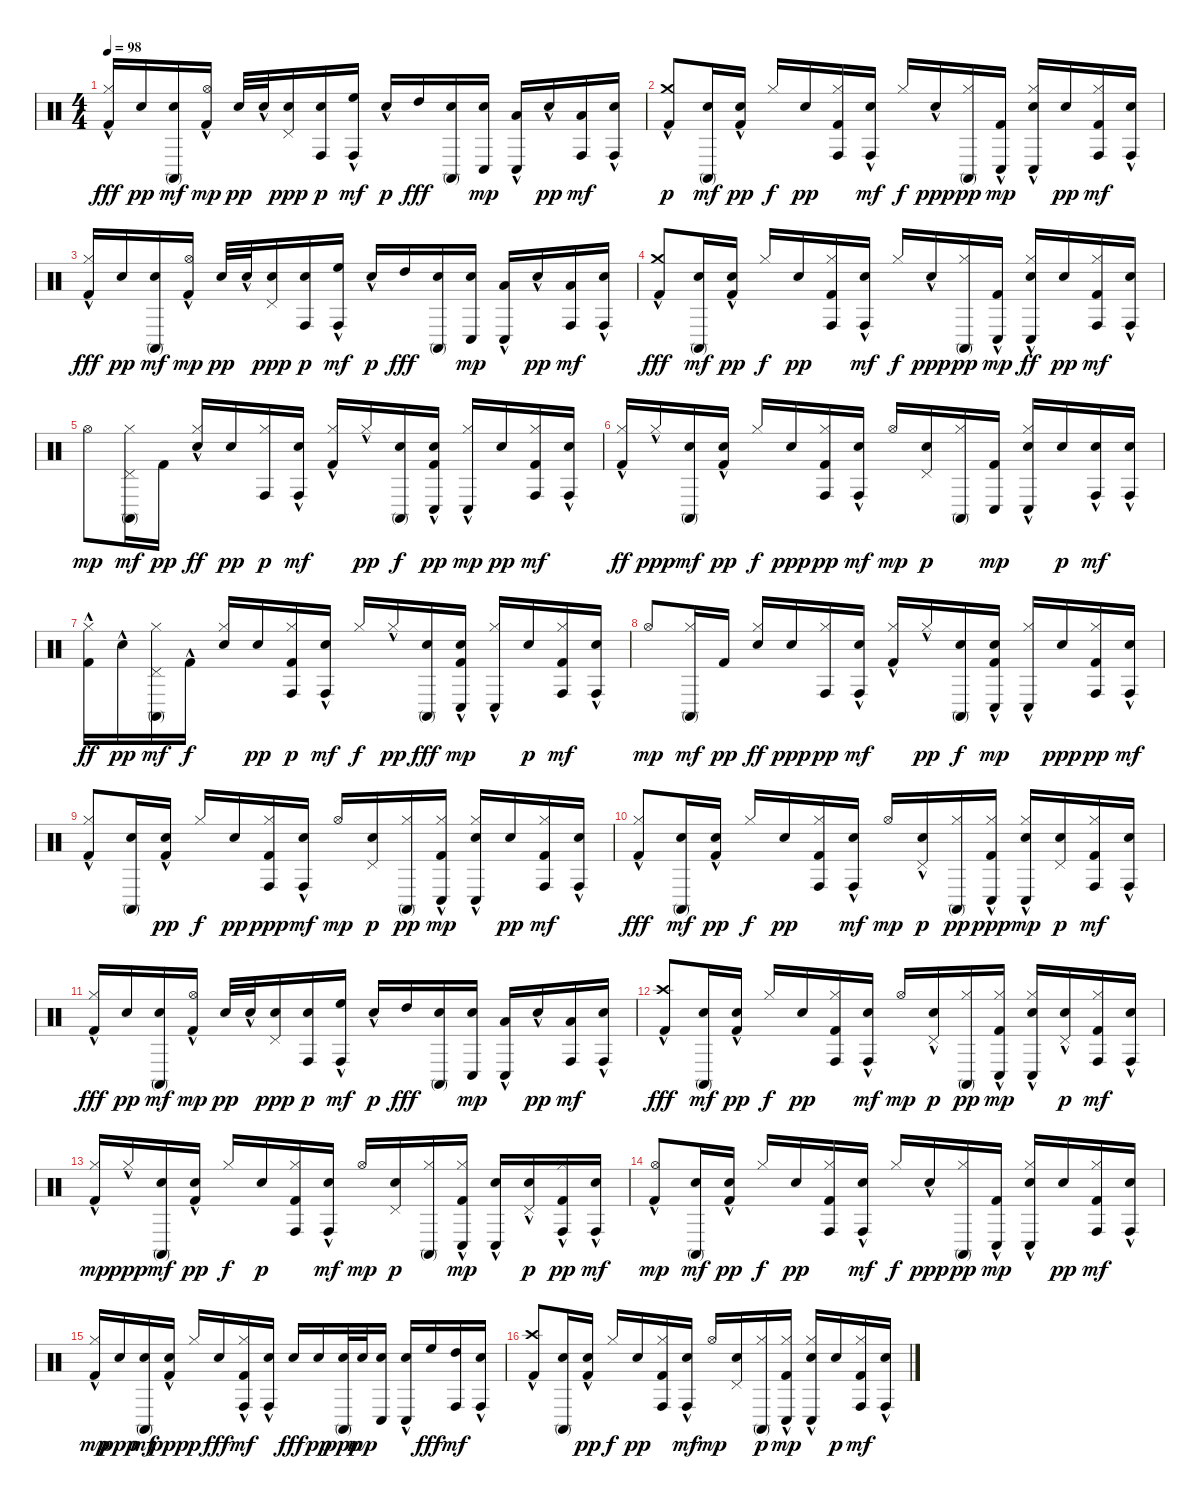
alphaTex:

\track "" {instrument percussion}
\staff {score}
\articulation defaults
\ts (4 4)
\tempo 98
\clef neutral
\ks c
("Kick (hit) 2"{hac} "Hi-Hat (closed)").16{dy fff} "Snare (hit) 2".16{dy pp} ("Snare (hit) 2" "Conga high (mute)").16{dy mf} ("Kick (hit) 2"{hac} "Hi-Hat (open)").16{dy mp} "Snare (hit) 2".32{dy pp} "Snare (hit) 2"{hac}.32 ("Electric Snare (hit)" "Pedal Hi-Hat (hit)").16{dy ppp} ("Snare (hit) 2" "Conga high (hit)").16{dy p} ("High Floor Tom (hit)" "Conga high (hit)"{hac}).16{dy mf} "Snare (hit) 2"{hac}.16{dy p} "High Tom (hit)".16{dy fff} ("Electric Snare (hit)" "Conga high (mute)").16 ("Snare (hit) 2" "Conga low (hit)").16{dy mp} ("Low Tom (hit)" "Conga low (hit)"{hac}).16 "Snare (hit) 2"{hac}.16{dy pp} ("Low Floor Tom (hit)" "Conga high (hit)").16{dy mf} ("Electric Snare (hit)"{hac} "Conga high (hit)"{hac}).16 |
("Kick (hit) 2"{hac} "Crash medium (hit)").8{dy p} ("Electric Snare (hit)" "Conga high (mute)").16{dy mf} ("Kick (hit) 2"{hac} "Snare (hit) 2").16{dy pp} "Hi-Hat (closed)".16{dy f} "Snare (hit) 2".16{dy pp} ("Conga high (hit)" "Kick (hit) 2" "Hi-Hat (closed)").16 ("Snare (hit) 2" "Conga high (hit)"{hac}).16{dy mf} "Hi-Hat (closed)".16{dy f} "Snare (hit) 2"{hac}.16{dy ppp} ("Hi-Hat (closed)" "Conga high (mute)").16{dy pp} ("Kick (hit) 2"{hac} "Conga low (hit)").16{dy mp} ("Snare (hit) 2" "Hi-Hat (closed)" "Conga low (hit)"{hac}).16 "Snare (hit) 2".16{dy pp} ("Kick (hit) 2" "Hi-Hat (closed)" "Conga high (hit)").16{dy mf} ("Snare (hit) 2" "Conga high (hit)"{hac}).16 |
("Kick (hit) 2"{hac} "Hi-Hat (closed)").16{dy fff} "Snare (hit) 2".16{dy pp} ("Snare (hit) 2" "Conga high (mute)").16{dy mf} ("Kick (hit) 2"{hac} "Hi-Hat (open)").16{dy mp} "Snare (hit) 2".32{dy pp} "Snare (hit) 2"{hac}.32 ("Electric Snare (hit)" "Pedal Hi-Hat (hit)").16{dy ppp} ("Snare (hit) 2" "Conga high (hit)").16{dy p} ("High Floor Tom (hit)" "Conga high (hit)"{hac}).16{dy mf} "Snare (hit) 2"{hac}.16{dy p} "High Tom (hit)".16{dy fff} ("Electric Snare (hit)" "Conga high (mute)").16 ("Snare (hit) 2" "Conga low (hit)").16{dy mp} ("Low Tom (hit)" "Conga low (hit)"{hac}).16 "Snare (hit) 2"{hac}.16{dy pp} ("Low Floor Tom (hit)" "Conga high (hit)").16{dy mf} ("Electric Snare (hit)"{hac} "Conga high (hit)"{hac}).16 |
("Kick (hit) 2"{hac} "Crash medium (hit)").8{dy fff} ("Electric Snare (hit)" "Conga high (mute)").16{dy mf} ("Kick (hit) 2"{hac} "Snare (hit) 2").16{dy pp} "Hi-Hat (closed)".16{dy f} "Snare (hit) 2".16{dy pp} ("Kick (hit) 2" "Hi-Hat (closed)" "Conga high (hit)").16 ("Snare (hit) 2" "Conga high (hit)"{hac}).16{dy mf} "Hi-Hat (closed)".16{dy f} "Snare (hit) 2"{hac}.16{dy ppp} ("Hi-Hat (closed)" "Conga high (mute)").16{dy pp} ("Kick (hit) 2"{hac} "Conga low (hit)").16{dy mp} ("Hi-Hat (closed)" "Conga low (hit)"{hac} "Snare (hit) 2").16{dy ff} "Snare (hit) 2".16{dy pp} ("Kick (hit) 2" "Hi-Hat (closed)" "Conga high (hit)").16{dy mf} ("Snare (hit) 2"{hac} "Conga high (hit)"{hac}).16 |
"Hi-Hat (open)".8{dy mp} ("Hi-Hat (closed)" "Pedal Hi-Hat (hit)" "Conga high (mute)").16{dy mf} "Kick (hit) 2".16{dy pp} ("Electric Snare (hit)"{hac} "Hi-Hat (closed)").16{dy ff} "Snare (hit) 2".16{dy pp} ("Hi-Hat (closed)" "Conga high (hit)").16{dy p} ("Snare (hit) 2"{hac} "Conga high (hit)"{hac}).16{dy mf} ("Kick (hit) 2"{hac} "Hi-Hat (closed)").16 "Hi-Hat (closed)"{hac}.16{dy pp} ("Snare (hit) 2" "Conga high (mute)").16{dy f} ("Conga low (hit)" "Kick (hit) 2"{hac} "Snare (hit) 2").16{dy pp} ("Hi-Hat (closed)" "Conga low (hit)"{hac}).16{dy mp} "Snare (hit) 2".16{dy pp} ("Kick (hit) 2" "Hi-Hat (closed)" "Conga high (hit)").16{dy mf} ("Snare (hit) 2" "Conga high (hit)"{hac}).16 |
("Kick (hit) 2"{hac} "Hi-Hat (closed)").16{dy ff} "Hi-Hat (closed)"{hac}.16{dy ppp} ("Electric Snare (hit)" "Conga high (mute)").16{dy mf} ("Kick (hit) 2"{hac} "Snare (hit) 2").16{dy pp} "Hi-Hat (closed)".16{dy f} "Snare (hit) 2".16{dy ppp} ("Conga high (hit)" "Kick (hit) 2" "Hi-Hat (closed)").16{dy pp} ("Electric Snare (hit)" "Conga high (hit)"{hac}).16{dy mf} "Hi-Hat (open)".16{dy mp} ("Snare (hit) 2" "Pedal Hi-Hat (hit)").16{dy p} ("Hi-Hat (closed)" "Conga high (mute)").16 ("Kick (hit) 2" "Conga low (hit)").16{dy mp} ("Electric Snare (hit)"{hac} "Hi-Hat (closed)" "Conga low (hit)"{hac}).16 "Snare (hit) 2".16{dy p} ("Snare (hit) 2"{hac} "Conga high (hit)").16{dy mf} ("Electric Snare (hit)" "Conga high (hit)"{hac}).16 |
("Kick (hit) 2"{hac} "Hi-Hat (closed)").16{dy ff} "Snare (hit) 2"{hac}.16{dy pp} ("Hi-Hat (closed)" "Pedal Hi-Hat (hit)" "Conga high (mute)").16{dy mf} "Kick (hit) 2"{hac}.16{dy f} ("Snare (hit) 2" "Hi-Hat (closed)").16 "Snare (hit) 2".16{dy pp} ("Conga high (hit)" "Kick (hit) 2" "Hi-Hat (closed)").16{dy p} ("Snare (hit) 2" "Conga high (hit)"{hac}).16{dy mf} "Hi-Hat (closed)".16{dy f} "Hi-Hat (closed)"{hac}.16{dy pp} ("Electric Snare (hit)" "Conga high (mute)").16{dy fff} ("Kick (hit) 2"{hac} "Snare (hit) 2" "Conga low (hit)").16{dy mp} ("Hi-Hat (closed)" "Conga low (hit)"{hac}).16 "Snare (hit) 2".16{dy p} ("Kick (hit) 2" "Hi-Hat (closed)" "Conga high (hit)").16{dy mf} ("Snare (hit) 2" "Conga high (hit)"{hac}).16 |
"Hi-Hat (open)".8{dy mp} ("Hi-Hat (closed)" "Conga high (mute)").16{dy mf} "Kick (hit) 2".16{dy pp} ("Snare (hit) 2" "Hi-Hat (closed)").16{dy ff} "Snare (hit) 2".16{dy ppp} ("Hi-Hat (closed)" "Conga high (hit)").16{dy pp} ("Snare (hit) 2" "Conga high (hit)"{hac}).16{dy mf} ("Kick (hit) 2"{hac} "Hi-Hat (closed)").16 "Hi-Hat (closed)"{hac}.16{dy pp} ("Electric Snare (hit)" "Conga high (mute)").16{dy f} ("Kick (hit) 2"{hac} "Snare (hit) 2" "Conga low (hit)").16{dy mp} ("Hi-Hat (closed)" "Conga low (hit)"{hac}).16 "Snare (hit) 2".16{dy ppp} ("Conga high (hit)" "Kick (hit) 2" "Hi-Hat (closed)").16{dy pp} ("Snare (hit) 2" "Conga high (hit)"{hac}).16{dy mf} |
("Kick (hit) 2"{hac} "Hi-Hat (closed)").8 ("Electric Snare (hit)" "Conga high (mute)").16 ("Kick (hit) 2"{hac} "Snare (hit) 2").16{dy pp} "Hi-Hat (closed)".16{dy f} "Snare (hit) 2".16{dy pp} ("Conga high (hit)" "Kick (hit) 2" "Hi-Hat (closed)").16{dy ppp} ("Electric Snare (hit)" "Conga high (hit)"{hac}).16{dy mf} "Hi-Hat (open)".16{dy mp} ("Snare (hit) 2" "Pedal Hi-Hat (hit)").16{dy p} ("Hi-Hat (closed)" "Conga high (mute)").16{dy pp} ("Kick (hit) 2"{hac} "Hi-Hat (closed)" "Conga low (hit)").16{dy mp} ("Electric Snare (hit)"{hac} "Hi-Hat (closed)" "Conga low (hit)"{hac}).16 "Snare (hit) 2".16{dy pp} ("Kick (hit) 2" "Hi-Hat (closed)" "Conga high (hit)").16{dy mf} ("Snare (hit) 2" "Conga high (hit)"{hac}).16 |
("Kick (hit) 2"{hac} "Hi-Hat (closed)").8{dy fff} ("Electric Snare (hit)" "Conga high (mute)").16{dy mf} ("Kick (hit) 2"{hac} "Snare (hit) 2").16{dy pp} "Hi-Hat (closed)".16{dy f} "Snare (hit) 2".16{dy pp} ("Conga high (hit)" "Kick (hit) 2" "Hi-Hat (closed)").16 ("Electric Snare (hit)" "Conga high (hit)"{hac}).16{dy mf} "Hi-Hat (open)".16{dy mp} ("Snare (hit) 2"{hac} "Pedal Hi-Hat (hit)").16{dy p} ("Hi-Hat (closed)" "Conga high (mute)").16{dy pp} ("Conga low (hit)" "Kick (hit) 2"{hac} "Hi-Hat (closed)").16{dy ppp} ("Snare (hit) 2" "Hi-Hat (closed)" "Conga low (hit)"{hac}).16{dy mp} ("Snare (hit) 2" "Pedal Hi-Hat (hit)").16{dy p} ("Kick (hit) 2" "Hi-Hat (closed)" "Conga high (hit)").16{dy mf} ("Electric Snare (hit)"{hac} "Conga high (hit)"{hac}).16 |
("Kick (hit) 2"{hac} "Hi-Hat (closed)").16{dy fff} "Snare (hit) 2".16{dy pp} ("Snare (hit) 2" "Conga high (mute)").16{dy mf} ("Kick (hit) 2"{hac} "Hi-Hat (open)").16{dy mp} "Snare (hit) 2".32{dy pp} "Snare (hit) 2"{hac}.32 ("Electric Snare (hit)" "Pedal Hi-Hat (hit)").16{dy ppp} ("Snare (hit) 2" "Conga high (hit)").16{dy p} ("High Floor Tom (hit)" "Conga high (hit)"{hac}).16{dy mf} "Snare (hit) 2"{hac}.16{dy p} "High Tom (hit)".16{dy fff} ("Electric Snare (hit)" "Conga high (mute)").16 ("Snare (hit) 2" "Conga low (hit)").16{dy mp} ("Low Tom (hit)" "Conga low (hit)"{hac}).16 "Snare (hit) 2"{hac}.16{dy pp} ("Low Floor Tom (hit)" "Conga high (hit)").16{dy mf} ("Electric Snare (hit)"{hac} "Conga high (hit)"{hac}).16 |
("Kick (hit) 2"{hac} "Crash high (hit)").8{dy fff} ("Electric Snare (hit)" "Conga high (mute)").16{dy mf} ("Kick (hit) 2"{hac} "Snare (hit) 2").16{dy pp} "Hi-Hat (closed)".16{dy f} "Snare (hit) 2".16{dy pp} ("Conga high (hit)" "Kick (hit) 2" "Hi-Hat (closed)").16 ("Electric Snare (hit)" "Conga high (hit)"{hac}).16{dy mf} "Hi-Hat (open)".16{dy mp} ("Snare (hit) 2"{hac} "Pedal Hi-Hat (hit)").16{dy p} ("Hi-Hat (closed)" "Conga high (mute)").16{dy pp} ("Kick (hit) 2"{hac} "Hi-Hat (closed)" "Conga low (hit)").16{dy mp} ("Conga low (hit)"{hac} "Snare (hit) 2" "Hi-Hat (closed)").16 ("Snare (hit) 2"{hac} "Pedal Hi-Hat (hit)"{hac}).16{dy p} ("Kick (hit) 2" "Hi-Hat (closed)" "Conga high (hit)").16{dy mf} ("Electric Snare (hit)"{hac} "Conga high (hit)"{hac}).16 |
("Kick (hit) 2"{hac} "Hi-Hat (closed)").16{dy mp} "Hi-Hat (closed)"{hac}.16{dy ppp} ("Electric Snare (hit)" "Conga high (mute)").16{dy mf} ("Kick (hit) 2"{hac} "Snare (hit) 2").16{dy pp} "Hi-Hat (closed)".16{dy f} "Snare (hit) 2".16{dy p} ("Kick (hit) 2" "Hi-Hat (closed)" "Conga high (hit)").16 ("Electric Snare (hit)" "Conga high (hit)"{hac}).16{dy mf} "Hi-Hat (open)".16{dy mp} ("Snare (hit) 2" "Pedal Hi-Hat (hit)").16{dy p} ("Hi-Hat (closed)" "Conga high (mute)").16 ("Kick (hit) 2"{hac} "Hi-Hat (closed)"{hac} "Conga low (hit)").16{dy mp} ("Electric Snare (hit)"{hac} "Conga low (hit)"{hac}).16 ("Snare (hit) 2"{hac} "Pedal Hi-Hat (hit)").16{dy p} ("Conga high (hit)" "Kick (hit) 2" "Hi-Hat (closed)"{hac}).16{dy pp} ("Electric Snare (hit)"{hac} "Conga high (hit)"{hac}).16{dy mf} |
("Kick (hit) 2"{hac} "Hi-Hat (open)").8{dy mp} ("Electric Snare (hit)" "Conga high (mute)").16{dy mf} ("Kick (hit) 2"{hac} "Snare (hit) 2").16{dy pp} "Hi-Hat (closed)".16{dy f} "Snare (hit) 2".16{dy pp} ("Kick (hit) 2" "Hi-Hat (closed)" "Conga high (hit)").16 ("Snare (hit) 2" "Conga high (hit)"{hac}).16{dy mf} "Hi-Hat (closed)".16{dy f} "Snare (hit) 2"{hac}.16{dy ppp} ("Hi-Hat (closed)" "Conga high (mute)").16{dy pp} ("Kick (hit) 2"{hac} "Conga low (hit)").16{dy mp} ("Snare (hit) 2" "Hi-Hat (closed)" "Conga low (hit)"{hac}).16 "Snare (hit) 2".16{dy pp} ("Kick (hit) 2" "Hi-Hat (closed)" "Conga high (hit)").16{dy mf} ("Snare (hit) 2" "Conga high (hit)"{hac}).16 |
("Kick (hit) 2"{hac} "Hi-Hat (closed)").16{dy mp} "Snare (hit) 2".16{dy ppp} ("Snare (hit) 2" "Conga high (mute)").16{dy mf} ("Kick (hit) 2"{hac} "Snare (hit) 2").16{dy ppp} "Hi-Hat (closed)".16{dy p} "Electric Snare (hit)".16{dy fff} ("Kick (hit) 2" "Hi-Hat (closed)"{hac} "Conga high (hit)").16{dy mf} ("Snare (hit) 2" "Conga high (hit)"{hac}).16 "Snare (hit) 2".16{dy fff} "Snare (hit) 2".16{dy pp} ("Snare (hit) 2" "Conga high (mute)").32{dy ppp} "Electric Snare (hit)".32{dy mp} ("Electric Snare (hit)" "Conga low (hit)").16 ("Snare (hit) 2"{hac} "Conga low (hit)"{hac}).16 "High Floor Tom (hit)".16{dy fff} ("High Tom (hit)" "Conga high (hit)").16{dy mf} ("Electric Snare (hit)"{hac} "Conga high (hit)"{hac}).16 |
("Kick (hit) 2"{hac} "Crash high (hit)").8 ("Electric Snare (hit)" "Conga high (mute)").16 ("Kick (hit) 2"{hac} "Snare (hit) 2").16{dy pp} "Hi-Hat (closed)".16{dy f} "Snare (hit) 2".16{dy pp} ("Kick (hit) 2" "Hi-Hat (closed)" "Conga high (hit)").16 ("Electric Snare (hit)" "Conga high (hit)"{hac}).16{dy mf} "Hi-Hat (open)".16{dy mp} ("Snare (hit) 2" "Pedal Hi-Hat (hit)").16 ("Hi-Hat (closed)" "Conga high (mute)").16{dy p} ("Kick (hit) 2"{hac} "Hi-Hat (closed)" "Conga low (hit)").16{dy mp} ("Electric Snare (hit)"{hac} "Hi-Hat (closed)" "Conga low (hit)"{hac}).16 "Snare (hit) 2".16{dy p} ("Kick (hit) 2" "Hi-Hat (closed)" "Conga high (hit)").16{dy mf} ("Snare (hit) 2" "Conga high (hit)"{hac}).16
